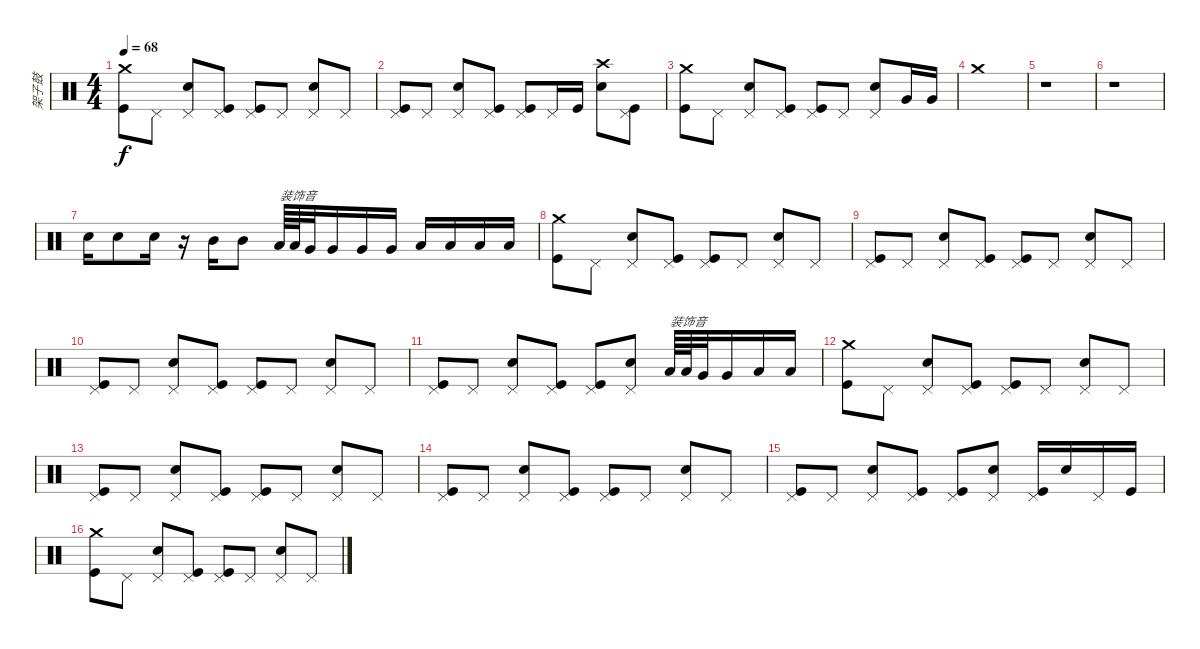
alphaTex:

\track ("架子鼓" "架子鼓") {instrument percussion}
\staff {score}
\articulation defaults
\ts (4 4)
\tempo 68
\clef neutral
\ks c
("Crash medium (hit)" "Kick (hit)").8{dy f} "Pedal Hi-Hat (hit)".8 ("Pedal Hi-Hat (hit)" "Snare (hit) 2").8 ("Pedal Hi-Hat (hit)" "Kick (hit)").8 ("Pedal Hi-Hat (hit)" "Kick (hit)").8 "Pedal Hi-Hat (hit)".8 ("Pedal Hi-Hat (hit)" "Snare (hit) 2").8 "Pedal Hi-Hat (hit)".8 |
("Pedal Hi-Hat (hit)" "Kick (hit)").8 "Pedal Hi-Hat (hit)".8 ("Pedal Hi-Hat (hit)" "Snare (hit) 2").8 ("Pedal Hi-Hat (hit)" "Kick (hit)").8 ("Pedal Hi-Hat (hit)" "Kick (hit)").8 "Pedal Hi-Hat (hit)".16 "Kick (hit)".16 ("Crash high (hit)" "Snare (hit) 2").8 ("Pedal Hi-Hat (hit)" "Kick (hit)").8 |
("Crash medium (hit)" "Kick (hit)").8 "Pedal Hi-Hat (hit)".8 ("Pedal Hi-Hat (hit)" "Snare (hit) 2").8 ("Pedal Hi-Hat (hit)" "Kick (hit)").8 ("Pedal Hi-Hat (hit)" "Kick (hit)").8 "Pedal Hi-Hat (hit)".8 ("Pedal Hi-Hat (hit)" "Snare (hit) 2").8 "Very Low Tom (hit)".16 "Very Low Tom (hit)".16 |
"Crash medium (hit)".1 |
r.1 |
r.1 |
"Snare (hit) 2".16 "Snare (hit) 2".8 "Snare (hit) 2".16 r.16 "Mid Tom (hit)".16 "Mid Tom (hit)".8 "Low Tom (hit)".64{txt "装饰音"} "Low Tom (hit)".64 "Very Low Tom (hit)".32 "Very Low Tom (hit)".16 "Very Low Tom (hit)".16 "Very Low Tom (hit)".16 "Low Floor Tom (hit)".16 "Low Floor Tom (hit)".16 "Low Floor Tom (hit)".16 "Low Floor Tom (hit)".16 |
("Crash medium (hit)" "Kick (hit)").8 "Pedal Hi-Hat (hit)".8 ("Pedal Hi-Hat (hit)" "Snare (hit) 2").8 ("Pedal Hi-Hat (hit)" "Kick (hit)").8 ("Pedal Hi-Hat (hit)" "Kick (hit)").8 "Pedal Hi-Hat (hit)".8 ("Pedal Hi-Hat (hit)" "Snare (hit) 2").8 "Pedal Hi-Hat (hit)".8 |
("Pedal Hi-Hat (hit)" "Kick (hit)").8 "Pedal Hi-Hat (hit)".8 ("Pedal Hi-Hat (hit)" "Snare (hit) 2").8 ("Pedal Hi-Hat (hit)" "Kick (hit)").8 ("Pedal Hi-Hat (hit)" "Kick (hit)").8 "Pedal Hi-Hat (hit)".8 ("Pedal Hi-Hat (hit)" "Snare (hit) 2").8 "Pedal Hi-Hat (hit)".8 |
("Pedal Hi-Hat (hit)" "Kick (hit)").8 "Pedal Hi-Hat (hit)".8 ("Pedal Hi-Hat (hit)" "Snare (hit) 2").8 ("Pedal Hi-Hat (hit)" "Kick (hit)").8 ("Pedal Hi-Hat (hit)" "Kick (hit)").8 "Pedal Hi-Hat (hit)".8 ("Pedal Hi-Hat (hit)" "Snare (hit) 2").8 "Pedal Hi-Hat (hit)".8 |
("Pedal Hi-Hat (hit)" "Kick (hit)").8 "Pedal Hi-Hat (hit)".8 ("Pedal Hi-Hat (hit)" "Snare (hit) 2").8 ("Pedal Hi-Hat (hit)" "Kick (hit)").8 ("Pedal Hi-Hat (hit)" "Kick (hit)").8 ("Pedal Hi-Hat (hit)" "Snare (hit) 2").8 "Low Tom (hit)".64{txt "装饰音"} "Low Tom (hit)".64 "Very Low Tom (hit)".32 "Very Low Tom (hit)".16 "Low Floor Tom (hit)".16 "Low Floor Tom (hit)".16 |
("Crash medium (hit)" "Kick (hit)").8 "Pedal Hi-Hat (hit)".8 ("Pedal Hi-Hat (hit)" "Snare (hit) 2").8 ("Pedal Hi-Hat (hit)" "Kick (hit)").8 ("Pedal Hi-Hat (hit)" "Kick (hit)").8 "Pedal Hi-Hat (hit)".8 ("Pedal Hi-Hat (hit)" "Snare (hit) 2").8 "Pedal Hi-Hat (hit)".8 |
("Pedal Hi-Hat (hit)" "Kick (hit)").8 "Pedal Hi-Hat (hit)".8 ("Pedal Hi-Hat (hit)" "Snare (hit) 2").8 ("Pedal Hi-Hat (hit)" "Kick (hit)").8 ("Pedal Hi-Hat (hit)" "Kick (hit)").8 "Pedal Hi-Hat (hit)".8 ("Pedal Hi-Hat (hit)" "Snare (hit) 2").8 "Pedal Hi-Hat (hit)".8 |
("Pedal Hi-Hat (hit)" "Kick (hit)").8 "Pedal Hi-Hat (hit)".8 ("Pedal Hi-Hat (hit)" "Snare (hit) 2").8 ("Pedal Hi-Hat (hit)" "Kick (hit)").8 ("Pedal Hi-Hat (hit)" "Kick (hit)").8 "Pedal Hi-Hat (hit)".8 ("Pedal Hi-Hat (hit)" "Snare (hit) 2").8 "Pedal Hi-Hat (hit)".8 |
("Pedal Hi-Hat (hit)" "Kick (hit)").8 "Pedal Hi-Hat (hit)".8 ("Pedal Hi-Hat (hit)" "Snare (hit) 2").8 ("Pedal Hi-Hat (hit)" "Kick (hit)").8 ("Pedal Hi-Hat (hit)" "Kick (hit)").8 ("Pedal Hi-Hat (hit)" "Snare (hit) 2").8 ("Pedal Hi-Hat (hit)" "Kick (hit)").16 "Snare (hit) 2".16 "Pedal Hi-Hat (hit)".16 "Kick (hit)".16 |
("Crash medium (hit)" "Kick (hit)").8 "Pedal Hi-Hat (hit)".8 ("Pedal Hi-Hat (hit)" "Snare (hit) 2").8 ("Pedal Hi-Hat (hit)" "Kick (hit)").8 ("Pedal Hi-Hat (hit)" "Kick (hit)").8 "Pedal Hi-Hat (hit)".8 ("Pedal Hi-Hat (hit)" "Snare (hit) 2").8 "Pedal Hi-Hat (hit)".8
